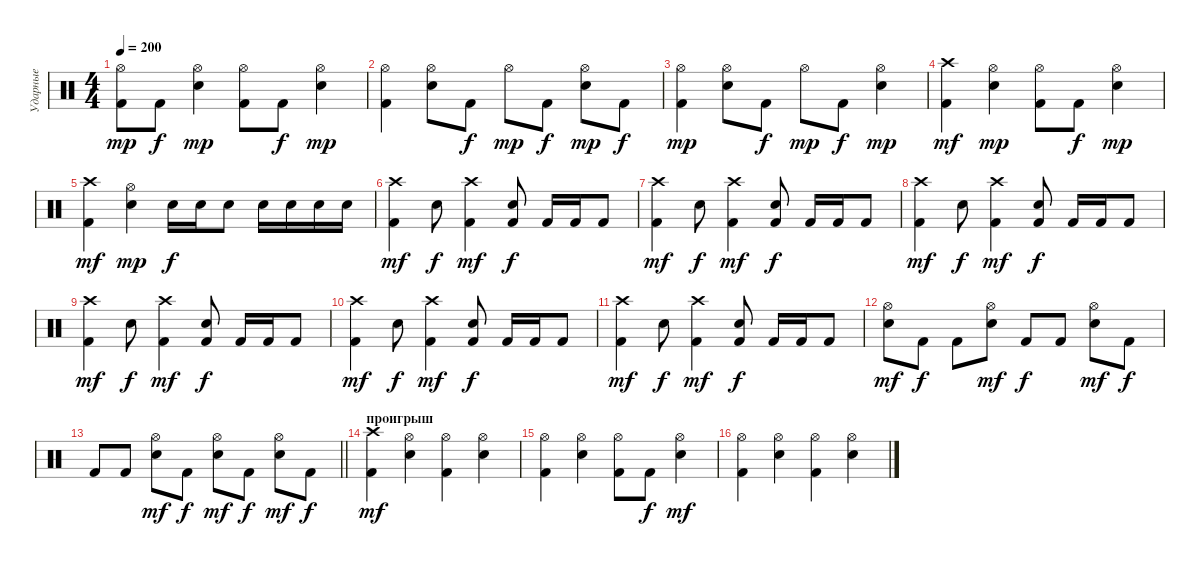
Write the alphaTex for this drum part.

\track ("Ударные" "Ударные") {instrument percussion}
\staff {score}
\articulation defaults
\ts (4 4)
\tempo 200
\clef neutral
\ks c
("Kick (hit) 2" "Hi-Hat (open)").8{dy mp} "Kick (hit) 2".8{dy f} ("Electric Snare (hit)" "Hi-Hat (open)").4{dy mp} ("Kick (hit) 2" "Hi-Hat (open)").8 "Kick (hit) 2".8{dy f} ("Electric Snare (hit)" "Hi-Hat (open)").4{dy mp} |
("Kick (hit) 2" "Hi-Hat (open)").4 ("Electric Snare (hit)" "Hi-Hat (open)").8 "Kick (hit) 2".8{dy f} "Hi-Hat (open)".8{dy mp} "Kick (hit) 2".8{dy f} ("Electric Snare (hit)" "Hi-Hat (open)").8{dy mp} "Kick (hit) 2".8{dy f} |
("Kick (hit) 2" "Hi-Hat (open)").4{dy mp} ("Electric Snare (hit)" "Hi-Hat (open)").8 "Kick (hit) 2".8{dy f} "Hi-Hat (open)".8{dy mp} "Kick (hit) 2".8{dy f} ("Electric Snare (hit)" "Hi-Hat (open)").4{dy mp} |
("Kick (hit) 2" "Crash high (hit)").4{dy mf} ("Electric Snare (hit)" "Hi-Hat (open)").4{dy mp} ("Kick (hit) 2" "Hi-Hat (open)").8 "Kick (hit) 2".8{dy f} ("Electric Snare (hit)" "Hi-Hat (open)").4{dy mp} |
("Kick (hit) 2" "Crash high (hit)").4{dy mf} ("Electric Snare (hit)" "Hi-Hat (open)").4{dy mp} "Electric Snare (hit)".16{dy f} "Electric Snare (hit)".16 "Electric Snare (hit)".8 "Electric Snare (hit)".16 "Electric Snare (hit)".16 "Electric Snare (hit)".16 "Electric Snare (hit)".16 |
("Kick (hit) 2" "Crash high (hit)").4{dy mf} "Electric Snare (hit)".8{dy f} ("Kick (hit) 2" "Crash high (hit)").4{dy mf} ("Kick (hit) 2" "Electric Snare (hit)").8{dy f} "Kick (hit) 2".16 "Kick (hit) 2".16 "Kick (hit) 2".8 |
("Kick (hit) 2" "Crash high (hit)").4{dy mf} "Electric Snare (hit)".8{dy f} ("Kick (hit) 2" "Crash high (hit)").4{dy mf} ("Kick (hit) 2" "Electric Snare (hit)").8{dy f} "Kick (hit) 2".16 "Kick (hit) 2".16 "Kick (hit) 2".8 |
("Kick (hit) 2" "Crash high (hit)").4{dy mf} "Electric Snare (hit)".8{dy f} ("Kick (hit) 2" "Crash high (hit)").4{dy mf} ("Kick (hit) 2" "Electric Snare (hit)").8{dy f} "Kick (hit) 2".16 "Kick (hit) 2".16 "Kick (hit) 2".8 |
("Kick (hit) 2" "Crash high (hit)").4{dy mf} "Electric Snare (hit)".8{dy f} ("Kick (hit) 2" "Crash high (hit)").4{dy mf} ("Kick (hit) 2" "Electric Snare (hit)").8{dy f} "Kick (hit) 2".16 "Kick (hit) 2".16 "Kick (hit) 2".8 |
("Kick (hit) 2" "Crash high (hit)").4{dy mf} "Electric Snare (hit)".8{dy f} ("Kick (hit) 2" "Crash high (hit)").4{dy mf} ("Kick (hit) 2" "Electric Snare (hit)").8{dy f} "Kick (hit) 2".16 "Kick (hit) 2".16 "Kick (hit) 2".8 |
("Kick (hit) 2" "Crash high (hit)").4{dy mf} "Electric Snare (hit)".8{dy f} ("Kick (hit) 2" "Crash high (hit)").4{dy mf} ("Kick (hit) 2" "Electric Snare (hit)").8{dy f} "Kick (hit) 2".16 "Kick (hit) 2".16 "Kick (hit) 2".8 |
("Electric Snare (hit)" "Hi-Hat (open)").8{dy mf} "Kick (hit) 2".8{dy f} "Kick (hit) 2".8 ("Electric Snare (hit)" "Hi-Hat (open)").8{dy mf} "Kick (hit) 2".8{dy f} "Kick (hit) 2".8 ("Electric Snare (hit)" "Hi-Hat (open)").8{dy mf} "Kick (hit) 2".8{dy f} |
\barLineRight lightlight "Kick (hit) 2".8 "Kick (hit) 2".8
("Electric Snare (hit)" "Hi-Hat (open)").8{dy mf} "Kick (hit) 2".8{dy f} ("Electric Snare (hit)" "Hi-Hat (open)").8{dy mf} "Kick (hit) 2".8{dy f} ("Electric Snare (hit)" "Hi-Hat (open)").8{dy mf} "Kick (hit) 2".8{dy f} |
\section ("" "проигрыш")
("Kick (hit) 2" "Crash high (hit)").4{dy mf} ("Electric Snare (hit)" "Hi-Hat (open)").4 ("Kick (hit) 2" "Hi-Hat (open)").4 ("Electric Snare (hit)" "Hi-Hat (open)").4 |
("Kick (hit) 2" "Hi-Hat (open)").4 ("Electric Snare (hit)" "Hi-Hat (open)").4 ("Kick (hit) 2" "Hi-Hat (open)").8 "Kick (hit) 2".8{dy f} ("Electric Snare (hit)" "Hi-Hat (open)").4{dy mf} |
("Kick (hit) 2" "Hi-Hat (open)").4 ("Electric Snare (hit)" "Hi-Hat (open)").4 ("Kick (hit) 2" "Hi-Hat (open)").4 ("Electric Snare (hit)" "Hi-Hat (open)").4
